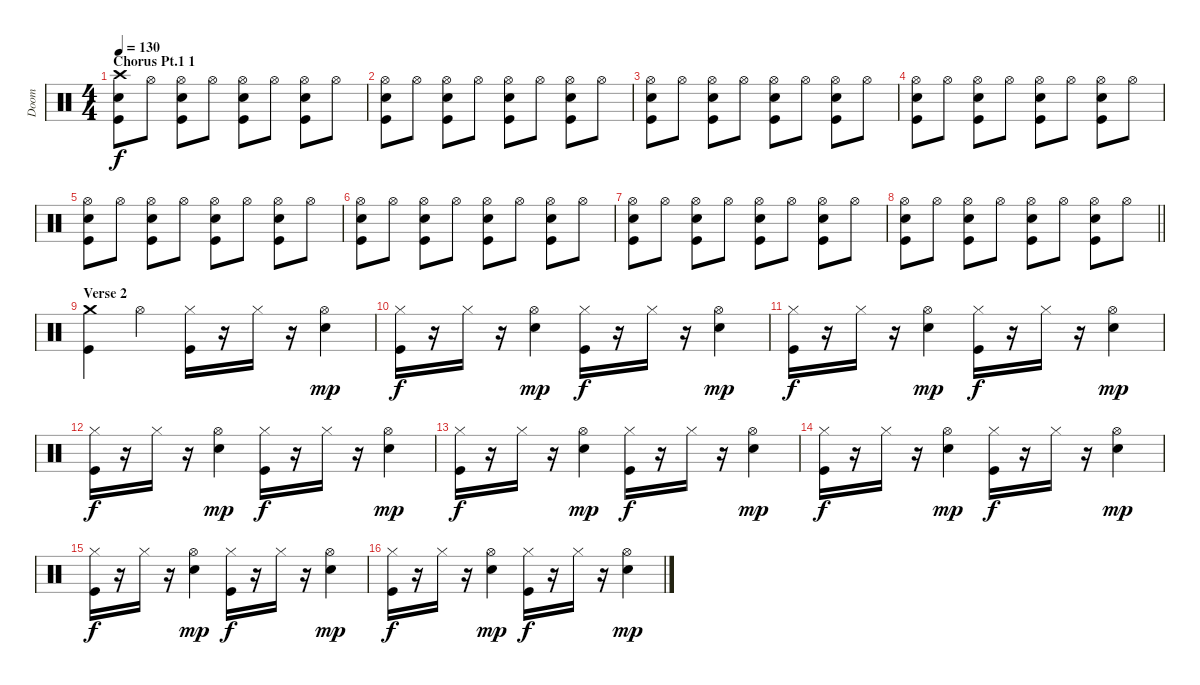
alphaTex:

\track ("Doom" "Doom") {instrument percussion}
\staff {score}
\articulation defaults
\ts (4 4)
\section ("" "Chorus Pt.1 1")
\tempo 130
\clef neutral
\ks c
("Crash high (hit)" "Electric Snare (hit)" "Kick (hit)").8{dy f} "Hi-Hat (open)".8 ("Hi-Hat (open)" "Electric Snare (hit)" "Kick (hit)").8 "Hi-Hat (open)".8 ("Hi-Hat (open)" "Electric Snare (hit)" "Kick (hit)").8 "Hi-Hat (open)".8 ("Hi-Hat (open)" "Electric Snare (hit)" "Kick (hit)").8 "Hi-Hat (open)".8 |
("Hi-Hat (open)" "Electric Snare (hit)" "Kick (hit)").8 "Hi-Hat (open)".8 ("Hi-Hat (open)" "Electric Snare (hit)" "Kick (hit)").8 "Hi-Hat (open)".8 ("Hi-Hat (open)" "Electric Snare (hit)" "Kick (hit)").8 "Hi-Hat (open)".8 ("Hi-Hat (open)" "Electric Snare (hit)" "Kick (hit)").8 "Hi-Hat (open)".8 |
("Hi-Hat (open)" "Electric Snare (hit)" "Kick (hit)").8 "Hi-Hat (open)".8 ("Hi-Hat (open)" "Electric Snare (hit)" "Kick (hit)").8 "Hi-Hat (open)".8 ("Hi-Hat (open)" "Electric Snare (hit)" "Kick (hit)").8 "Hi-Hat (open)".8 ("Hi-Hat (open)" "Electric Snare (hit)" "Kick (hit)").8 "Hi-Hat (open)".8 |
("Hi-Hat (open)" "Electric Snare (hit)" "Kick (hit)").8 "Hi-Hat (open)".8 ("Hi-Hat (open)" "Electric Snare (hit)" "Kick (hit)").8 "Hi-Hat (open)".8 ("Hi-Hat (open)" "Electric Snare (hit)" "Kick (hit)").8 "Hi-Hat (open)".8 ("Hi-Hat (open)" "Electric Snare (hit)" "Kick (hit)").8 "Hi-Hat (open)".8 |
("Hi-Hat (open)" "Electric Snare (hit)" "Kick (hit)").8 "Hi-Hat (open)".8 ("Hi-Hat (open)" "Electric Snare (hit)" "Kick (hit)").8 "Hi-Hat (open)".8 ("Hi-Hat (open)" "Electric Snare (hit)" "Kick (hit)").8 "Hi-Hat (open)".8 ("Hi-Hat (open)" "Electric Snare (hit)" "Kick (hit)").8 "Hi-Hat (open)".8 |
("Hi-Hat (open)" "Electric Snare (hit)" "Kick (hit)").8 "Hi-Hat (open)".8 ("Hi-Hat (open)" "Electric Snare (hit)" "Kick (hit)").8 "Hi-Hat (open)".8 ("Hi-Hat (open)" "Electric Snare (hit)" "Kick (hit)").8 "Hi-Hat (open)".8 ("Hi-Hat (open)" "Electric Snare (hit)" "Kick (hit)").8 "Hi-Hat (open)".8 |
("Hi-Hat (open)" "Electric Snare (hit)" "Kick (hit)").8 "Hi-Hat (open)".8 ("Hi-Hat (open)" "Electric Snare (hit)" "Kick (hit)").8 "Hi-Hat (open)".8 ("Hi-Hat (open)" "Electric Snare (hit)" "Kick (hit)").8 "Hi-Hat (open)".8 ("Hi-Hat (open)" "Electric Snare (hit)" "Kick (hit)").8 "Hi-Hat (open)".8 |
\barLineRight lightlight
("Hi-Hat (open)" "Electric Snare (hit)" "Kick (hit)").8 "Hi-Hat (open)".8 ("Hi-Hat (open)" "Electric Snare (hit)" "Kick (hit)").8 "Hi-Hat (open)".8 ("Hi-Hat (open)" "Electric Snare (hit)" "Kick (hit)").8 "Hi-Hat (open)".8 ("Hi-Hat (open)" "Electric Snare (hit)" "Kick (hit)").8 "Hi-Hat (open)".8 |
\section ("" "Verse 2")
("Crash medium (hit)" "Kick (hit)").4 "Hi-Hat (open)".4 ("Hi-Hat (closed)" "Kick (hit)").16 r.16 "Hi-Hat (closed)".16 r.16 ("Hi-Hat (open)" "Electric Snare (hit)").4{dy mp} |
("Hi-Hat (closed)" "Kick (hit)").16{dy f} r.16 "Hi-Hat (closed)".16 r.16 ("Hi-Hat (open)" "Electric Snare (hit)").4{dy mp} ("Hi-Hat (closed)" "Kick (hit)").16{dy f} r.16 "Hi-Hat (closed)".16 r.16 ("Hi-Hat (open)" "Electric Snare (hit)").4{dy mp} |
("Hi-Hat (closed)" "Kick (hit)").16{dy f} r.16 "Hi-Hat (closed)".16 r.16 ("Hi-Hat (open)" "Electric Snare (hit)").4{dy mp} ("Hi-Hat (closed)" "Kick (hit)").16{dy f} r.16 "Hi-Hat (closed)".16 r.16 ("Hi-Hat (open)" "Electric Snare (hit)").4{dy mp} |
("Hi-Hat (closed)" "Kick (hit)").16{dy f} r.16 "Hi-Hat (closed)".16 r.16 ("Hi-Hat (open)" "Electric Snare (hit)").4{dy mp} ("Hi-Hat (closed)" "Kick (hit)").16{dy f} r.16 "Hi-Hat (closed)".16 r.16 ("Hi-Hat (open)" "Electric Snare (hit)").4{dy mp} |
("Hi-Hat (closed)" "Kick (hit)").16{dy f} r.16 "Hi-Hat (closed)".16 r.16 ("Hi-Hat (open)" "Electric Snare (hit)").4{dy mp} ("Hi-Hat (closed)" "Kick (hit)").16{dy f} r.16 "Hi-Hat (closed)".16 r.16 ("Hi-Hat (open)" "Electric Snare (hit)").4{dy mp} |
("Hi-Hat (closed)" "Kick (hit)").16{dy f} r.16 "Hi-Hat (closed)".16 r.16 ("Hi-Hat (open)" "Electric Snare (hit)").4{dy mp} ("Hi-Hat (closed)" "Kick (hit)").16{dy f} r.16 "Hi-Hat (closed)".16 r.16 ("Hi-Hat (open)" "Electric Snare (hit)").4{dy mp} |
("Hi-Hat (closed)" "Kick (hit)").16{dy f} r.16 "Hi-Hat (closed)".16 r.16 ("Hi-Hat (open)" "Electric Snare (hit)").4{dy mp} ("Hi-Hat (closed)" "Kick (hit)").16{dy f} r.16 "Hi-Hat (closed)".16 r.16 ("Hi-Hat (open)" "Electric Snare (hit)").4{dy mp} |
("Hi-Hat (closed)" "Kick (hit)").16{dy f} r.16 "Hi-Hat (closed)".16 r.16 ("Hi-Hat (open)" "Electric Snare (hit)").4{dy mp} ("Hi-Hat (closed)" "Kick (hit)").16{dy f} r.16 "Hi-Hat (closed)".16 r.16 ("Hi-Hat (open)" "Electric Snare (hit)").4{dy mp}
